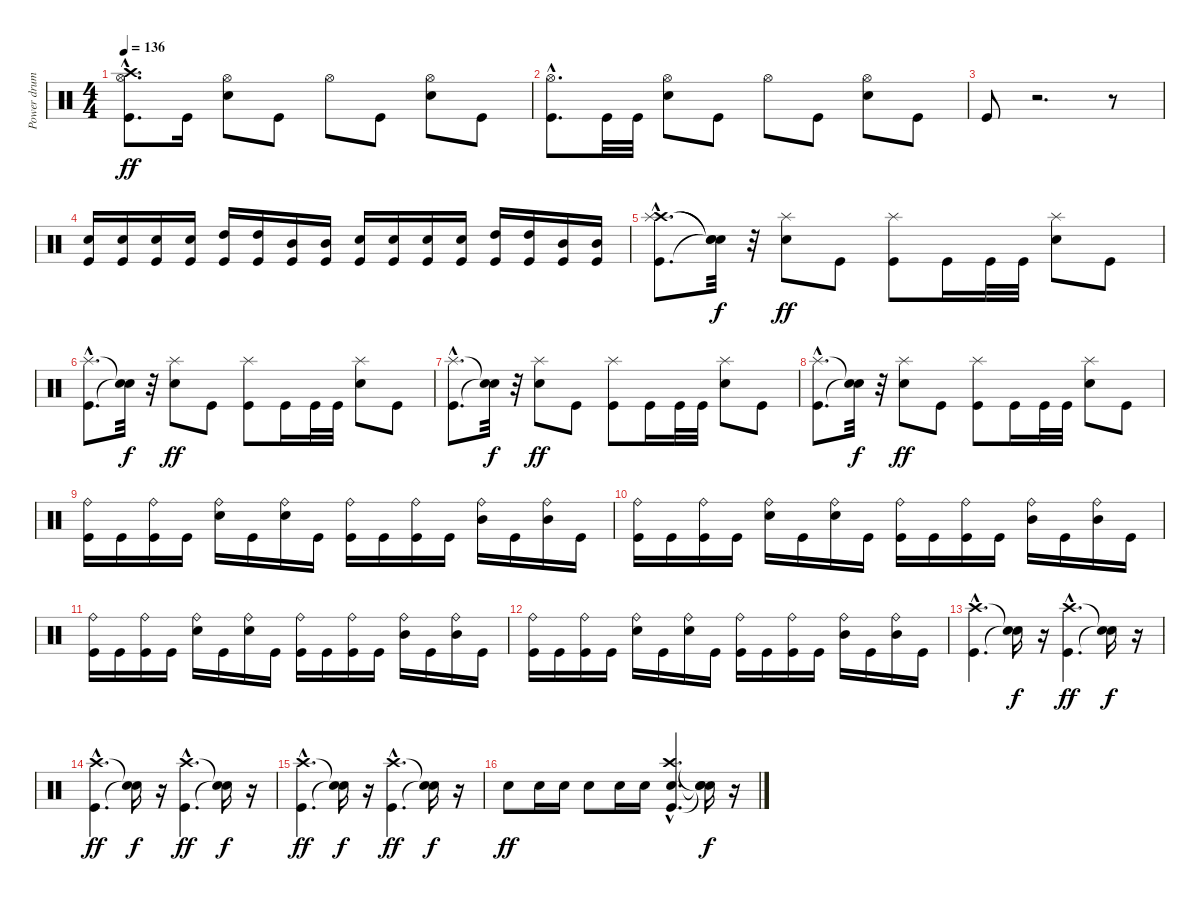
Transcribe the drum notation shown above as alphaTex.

\track ("Power drums" "Power drum") {instrument percussion}
\staff {score}
\articulation defaults
\ts (4 4)
\tempo 136
\clef neutral
\ks c
("Kick (hit)"{hac} "Hi-Hat (open)"{hac} "Crash high (hit)"{hac}).8{d dy ff} "Kick (hit)".16 ("Snare (hit) 2" "Hi-Hat (open)").8 "Kick (hit)".8 "Hi-Hat (open)".8 "Kick (hit)".8 ("Snare (hit) 2" "Hi-Hat (open)").8 "Kick (hit)".8 |
("Kick (hit)"{hac} "Hi-Hat (open)"{hac}).8{d} "Kick (hit)".32 "Kick (hit)".32 ("Snare (hit) 2" "Hi-Hat (open)").8 "Kick (hit)".8 "Hi-Hat (open)".8 "Kick (hit)".8 ("Snare (hit) 2" "Hi-Hat (open)").8 "Kick (hit)".8 |
"Kick (hit)".8 r.2{d} r.8 |
("Kick (hit)" "Snare (hit) 2").16 ("Kick (hit)" "Snare (hit) 2").16 ("Kick (hit)" "Snare (hit) 2").16 ("Kick (hit)" "Snare (hit) 2").16 ("Kick (hit)" "High Tom (hit)").16 ("Kick (hit)" "High Tom (hit)").16 ("Kick (hit)" "Mid Tom (hit)").16 ("Kick (hit)" "Mid Tom (hit)").16 ("Kick (hit)" "Snare (hit) 2").16 ("Kick (hit)" "Snare (hit) 2").16 ("Kick (hit)" "Snare (hit) 2").16 ("Kick (hit)" "Snare (hit) 2").16 ("Kick (hit)" "High Tom (hit)").16 ("Kick (hit)" "High Tom (hit)").16 ("Kick (hit)" "Mid Tom (hit)").16 ("Kick (hit)" "Mid Tom (hit)").16 |
("Kick (hit)"{hac} "Crash high (hit)"{hac} "Splash (hit)"{hac}).8{d} ("Snare (hit)"{t} "Snare (hit)"{t} "Snare (hit)"{t}).32{dy f} r.32 ("Snare (hit) 2" "Splash (hit)").8{dy ff} "Kick (hit)".8 ("Kick (hit)" "Splash (hit)").8 "Kick (hit)".16 "Kick (hit)".32 "Kick (hit)".32 ("Snare (hit) 2" "Splash (hit)").8 "Kick (hit)".8 |
("Kick (hit)"{hac} "Splash (hit)"{hac}).8{d} ("Snare (hit)"{t} "Snare (hit)"{t}).32{dy f} r.32 ("Snare (hit) 2" "Splash (hit)").8{dy ff} "Kick (hit)".8 ("Kick (hit)" "Splash (hit)").8 "Kick (hit)".16 "Kick (hit)".32 "Kick (hit)".32 ("Snare (hit) 2" "Splash (hit)").8 "Kick (hit)".8 |
("Kick (hit)"{hac} "Splash (hit)"{hac}).8{d} ("Snare (hit)"{t} "Snare (hit)"{t}).32{dy f} r.32 ("Snare (hit) 2" "Splash (hit)").8{dy ff} "Kick (hit)".8 ("Kick (hit)" "Splash (hit)").8 "Kick (hit)".16 "Kick (hit)".32 "Kick (hit)".32 ("Snare (hit) 2" "Splash (hit)").8 "Kick (hit)".8 |
("Kick (hit)"{hac} "Splash (hit)"{hac}).8{d} ("Snare (hit)"{t} "Snare (hit)"{t}).32{dy f} r.32 ("Snare (hit) 2" "Splash (hit)").8{dy ff} "Kick (hit)".8 ("Kick (hit)" "Splash (hit)").8 "Kick (hit)".16 "Kick (hit)".32 "Kick (hit)".32 ("Snare (hit) 2" "Splash (hit)").8 "Kick (hit)".8 |
("Kick (hit)" "Ride (bell)").16 "Kick (hit)".16 ("Kick (hit)" "Ride (bell)").16 "Kick (hit)".16 ("Snare (hit) 2" "Ride (bell)").16 "Kick (hit)".16 ("Snare (hit) 2" "Ride (bell)").16 "Kick (hit)".16 ("Kick (hit)" "Ride (bell)").16 "Kick (hit)".16 ("Kick (hit)" "Ride (bell)").16 "Kick (hit)".16 ("Mid Tom (hit)" "Ride (bell)").16 "Kick (hit)".16 ("Mid Tom (hit)" "Ride (bell)").16 "Kick (hit)".16 |
("Kick (hit)" "Ride (bell)").16 "Kick (hit)".16 ("Kick (hit)" "Ride (bell)").16 "Kick (hit)".16 ("Snare (hit) 2" "Ride (bell)").16 "Kick (hit)".16 ("Snare (hit) 2" "Ride (bell)").16 "Kick (hit)".16 ("Kick (hit)" "Ride (bell)").16 "Kick (hit)".16 ("Kick (hit)" "Ride (bell)").16 "Kick (hit)".16 ("Mid Tom (hit)" "Ride (bell)").16 "Kick (hit)".16 ("Mid Tom (hit)" "Ride (bell)").16 "Kick (hit)".16 |
("Kick (hit)" "Ride (bell)").16 "Kick (hit)".16 ("Kick (hit)" "Ride (bell)").16 "Kick (hit)".16 ("Snare (hit) 2" "Ride (bell)").16 "Kick (hit)".16 ("Snare (hit) 2" "Ride (bell)").16 "Kick (hit)".16 ("Kick (hit)" "Ride (bell)").16 "Kick (hit)".16 ("Kick (hit)" "Ride (bell)").16 "Kick (hit)".16 ("Mid Tom (hit)" "Ride (bell)").16 "Kick (hit)".16 ("Mid Tom (hit)" "Ride (bell)").16 "Kick (hit)".16 |
("Kick (hit)" "Ride (bell)").16 "Kick (hit)".16 ("Kick (hit)" "Ride (bell)").16 "Kick (hit)".16 ("Snare (hit) 2" "Ride (bell)").16 "Kick (hit)".16 ("Snare (hit) 2" "Ride (bell)").16 "Kick (hit)".16 ("Kick (hit)" "Ride (bell)").16 "Kick (hit)".16 ("Kick (hit)" "Ride (bell)").16 "Kick (hit)".16 ("Mid Tom (hit)" "Ride (bell)").16 "Kick (hit)".16 ("Mid Tom (hit)" "Ride (bell)").16 "Kick (hit)".16 |
("Kick (hit)"{hac} "Crash high (hit)"{hac}).4{d} ("Snare (hit)"{t} "Snare (hit)"{t}).16{dy f} r.16 ("Kick (hit)"{hac} "Crash high (hit)"{hac}).4{d dy ff} ("Snare (hit)"{t} "Snare (hit)"{t}).16{dy f} r.16 |
("Kick (hit)"{hac} "Crash high (hit)"{hac}).4{d dy ff} ("Snare (hit)"{t} "Snare (hit)"{t}).16{dy f} r.16 ("Kick (hit)"{hac} "Crash high (hit)"{hac}).4{d dy ff} ("Snare (hit)"{t} "Snare (hit)"{t}).16{dy f} r.16 |
("Kick (hit)"{hac} "Crash high (hit)"{hac}).4{d dy ff} ("Snare (hit)"{t} "Snare (hit)"{t}).16{dy f} r.16 ("Kick (hit)"{hac} "Crash high (hit)"{hac}).4{d dy ff} ("Snare (hit)"{t} "Snare (hit)"{t}).16{dy f} r.16 |
"Snare (hit) 2".8{dy ff} "Snare (hit) 2".16 "Snare (hit) 2".16 "Snare (hit) 2".8 "Snare (hit) 2".16 "Snare (hit) 2".16 ("Kick (hit)"{hac} "Snare (hit) 2"{hac} "Crash high (hit)"{hac}).4{d} ("Snare (hit)"{t} "Snare (hit)"{t} "Snare (hit)"{t}).16{dy f} r.16
